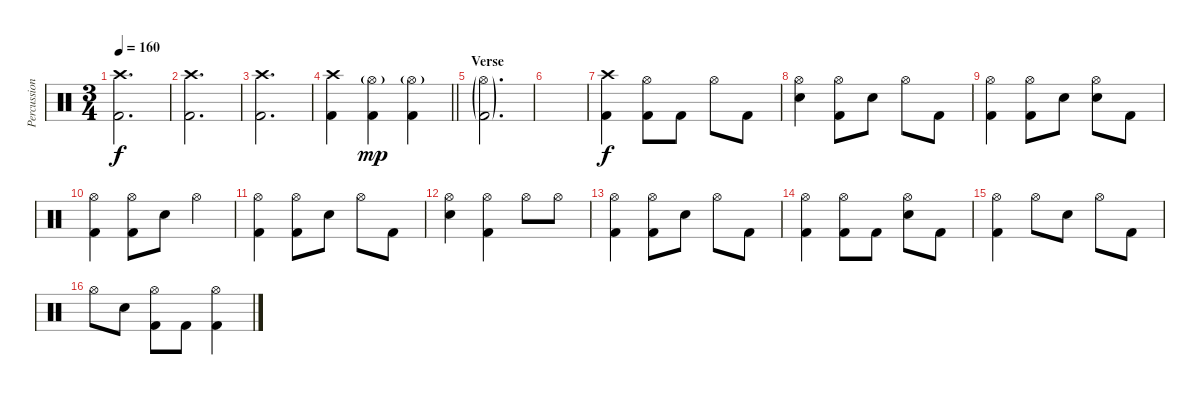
\track ("Percussion" "Percussion") {instrument percussion}
\staff {score}
\articulation defaults
\ts (3 4)
\tempo 160
\clef neutral
\ks c
("Crash high (hit)" "Kick (hit) 2").2{d dy f} |
("Crash high (hit)" "Kick (hit) 2").2{d} |
("Crash high (hit)" "Kick (hit) 2").2{d} |
\barLineRight lightlight
("Crash high (hit)" "Kick (hit) 2").4 ("Hi-Hat (open)"{g} "Kick (hit) 2").4{dy mp} ("Hi-Hat (open)"{g} "Kick (hit) 2").4 |
\section ("" "Verse")
("Hi-Hat (open)"{g} "Kick (hit) 2"{g}).2{d} |
|
("Crash high (hit)" "Kick (hit) 2").4{dy f} ("Hi-Hat (open)" "Kick (hit) 2").8 "Kick (hit) 2".8 "Hi-Hat (open)".8 "Kick (hit) 2".8 |
("Hi-Hat (open)" "Snare (hit) 2").4 ("Hi-Hat (open)" "Kick (hit) 2").8 "Snare (hit) 2".8 "Hi-Hat (open)".8 "Kick (hit) 2".8 |
("Hi-Hat (open)" "Kick (hit) 2").4 ("Hi-Hat (open)" "Kick (hit) 2").8 "Snare (hit) 2".8 ("Hi-Hat (open)" "Snare (hit) 2").8 "Kick (hit) 2".8 |
("Hi-Hat (open)" "Kick (hit) 2").4 ("Hi-Hat (open)" "Kick (hit) 2").8 "Snare (hit) 2".8 "Hi-Hat (open)".4 |
("Hi-Hat (open)" "Kick (hit) 2").4 ("Hi-Hat (open)" "Kick (hit) 2").8 "Snare (hit) 2".8 "Hi-Hat (open)".8 "Kick (hit) 2".8 |
("Hi-Hat (open)" "Snare (hit) 2").4 ("Hi-Hat (open)" "Kick (hit) 2").4 "Hi-Hat (open)".8 "Hi-Hat (open)".8 |
("Hi-Hat (open)" "Kick (hit) 2").4 ("Hi-Hat (open)" "Kick (hit) 2").8 "Snare (hit) 2".8 "Hi-Hat (open)".8 "Kick (hit) 2".8 |
("Hi-Hat (open)" "Kick (hit) 2").4 ("Hi-Hat (open)" "Kick (hit) 2").8 "Kick (hit) 2".8 ("Hi-Hat (open)" "Snare (hit) 2").8 "Kick (hit) 2".8 |
("Hi-Hat (open)" "Kick (hit) 2").4 "Hi-Hat (open)".8 "Snare (hit) 2".8 "Hi-Hat (open)".8 "Kick (hit) 2".8 |
"Hi-Hat (open)".8 "Snare (hit) 2".8 ("Hi-Hat (open)" "Kick (hit) 2").8 "Kick (hit) 2".8 ("Hi-Hat (open)" "Kick (hit) 2").4
